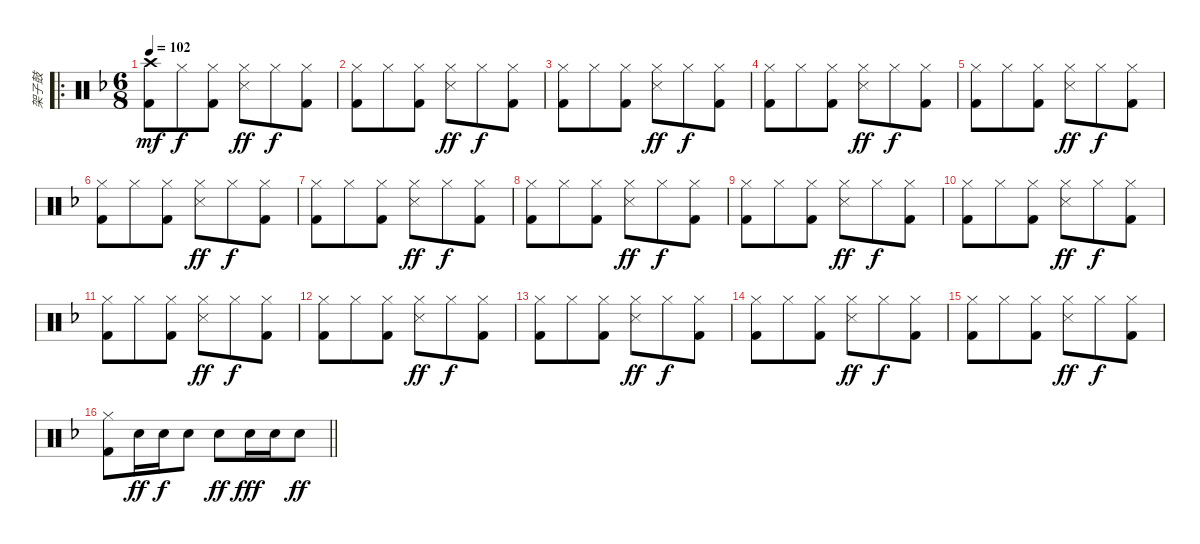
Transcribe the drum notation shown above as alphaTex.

\track ("架子鼓" "架子鼓") {instrument percussion}
\staff {score}
\articulation defaults
\ro
\ts (6 8)
\tempo 102
\clef neutral
\ks f
("Crash high (hit)" "Kick (hit) 2").8{dy mf} "Hi-Hat (closed)".8{dy f} ("Hi-Hat (closed)" "Kick (hit) 2").8 ("Hi-Hat (closed)" "Snare (side stick) 3").8{dy ff} "Hi-Hat (closed)".8{dy f} ("Hi-Hat (closed)" "Kick (hit) 2").8 |
("Hi-Hat (closed)" "Kick (hit) 2").8 "Hi-Hat (closed)".8 ("Hi-Hat (closed)" "Kick (hit) 2").8 ("Hi-Hat (closed)" "Snare (side stick) 3").8{dy ff} "Hi-Hat (closed)".8{dy f} ("Hi-Hat (closed)" "Kick (hit) 2").8 |
("Hi-Hat (closed)" "Kick (hit) 2").8 "Hi-Hat (closed)".8 ("Hi-Hat (closed)" "Kick (hit) 2").8 ("Hi-Hat (closed)" "Snare (side stick) 3").8{dy ff} "Hi-Hat (closed)".8{dy f} ("Hi-Hat (closed)" "Kick (hit) 2").8 |
("Hi-Hat (closed)" "Kick (hit) 2").8 "Hi-Hat (closed)".8 ("Hi-Hat (closed)" "Kick (hit) 2").8 ("Hi-Hat (closed)" "Snare (side stick) 3").8{dy ff} "Hi-Hat (closed)".8{dy f} ("Hi-Hat (closed)" "Kick (hit) 2").8 |
("Hi-Hat (closed)" "Kick (hit) 2").8 "Hi-Hat (closed)".8 ("Hi-Hat (closed)" "Kick (hit) 2").8 ("Hi-Hat (closed)" "Snare (side stick) 3").8{dy ff} "Hi-Hat (closed)".8{dy f} ("Hi-Hat (closed)" "Kick (hit) 2").8 |
("Hi-Hat (closed)" "Kick (hit) 2").8 "Hi-Hat (closed)".8 ("Hi-Hat (closed)" "Kick (hit) 2").8 ("Hi-Hat (closed)" "Snare (side stick) 3").8{dy ff} "Hi-Hat (closed)".8{dy f} ("Hi-Hat (closed)" "Kick (hit) 2").8 |
("Hi-Hat (closed)" "Kick (hit) 2").8 "Hi-Hat (closed)".8 ("Hi-Hat (closed)" "Kick (hit) 2").8 ("Hi-Hat (closed)" "Snare (side stick) 3").8{dy ff} "Hi-Hat (closed)".8{dy f} ("Hi-Hat (closed)" "Kick (hit) 2").8 |
("Hi-Hat (closed)" "Kick (hit) 2").8 "Hi-Hat (closed)".8 ("Hi-Hat (closed)" "Kick (hit) 2").8 ("Hi-Hat (closed)" "Snare (side stick) 3").8{dy ff} "Hi-Hat (closed)".8{dy f} ("Hi-Hat (closed)" "Kick (hit) 2").8 |
("Hi-Hat (closed)" "Kick (hit) 2").8 "Hi-Hat (closed)".8 ("Hi-Hat (closed)" "Kick (hit) 2").8 ("Hi-Hat (closed)" "Snare (side stick) 3").8{dy ff} "Hi-Hat (closed)".8{dy f} ("Hi-Hat (closed)" "Kick (hit) 2").8 |
("Hi-Hat (closed)" "Kick (hit) 2").8 "Hi-Hat (closed)".8 ("Hi-Hat (closed)" "Kick (hit) 2").8 ("Hi-Hat (closed)" "Snare (side stick) 3").8{dy ff} "Hi-Hat (closed)".8{dy f} ("Hi-Hat (closed)" "Kick (hit) 2").8 |
("Hi-Hat (closed)" "Kick (hit) 2").8 "Hi-Hat (closed)".8 ("Hi-Hat (closed)" "Kick (hit) 2").8 ("Hi-Hat (closed)" "Snare (side stick) 3").8{dy ff} "Hi-Hat (closed)".8{dy f} ("Hi-Hat (closed)" "Kick (hit) 2").8 |
("Hi-Hat (closed)" "Kick (hit) 2").8 "Hi-Hat (closed)".8 ("Hi-Hat (closed)" "Kick (hit) 2").8 ("Hi-Hat (closed)" "Snare (side stick) 3").8{dy ff} "Hi-Hat (closed)".8{dy f} ("Hi-Hat (closed)" "Kick (hit) 2").8 |
("Hi-Hat (closed)" "Kick (hit) 2").8 "Hi-Hat (closed)".8 ("Hi-Hat (closed)" "Kick (hit) 2").8 ("Hi-Hat (closed)" "Snare (side stick) 3").8{dy ff} "Hi-Hat (closed)".8{dy f} ("Hi-Hat (closed)" "Kick (hit) 2").8 |
("Hi-Hat (closed)" "Kick (hit) 2").8 "Hi-Hat (closed)".8 ("Hi-Hat (closed)" "Kick (hit) 2").8 ("Hi-Hat (closed)" "Snare (side stick) 3").8{dy ff} "Hi-Hat (closed)".8{dy f} ("Hi-Hat (closed)" "Kick (hit) 2").8 |
("Hi-Hat (closed)" "Kick (hit) 2").8 "Hi-Hat (closed)".8 ("Hi-Hat (closed)" "Kick (hit) 2").8 ("Hi-Hat (closed)" "Snare (side stick) 3").8{dy ff} "Hi-Hat (closed)".8{dy f} ("Hi-Hat (closed)" "Kick (hit) 2").8 |
\barLineRight lightlight
("Hi-Hat (closed)" "Kick (hit) 2").8 "Electric Snare (hit)".16{dy ff} "Electric Snare (hit)".16{dy f} "Electric Snare (hit)".8 "Electric Snare (hit)".8{dy ff} "Electric Snare (hit)".16{dy fff} "Electric Snare (hit)".16 "Electric Snare (hit)".8{dy ff}
